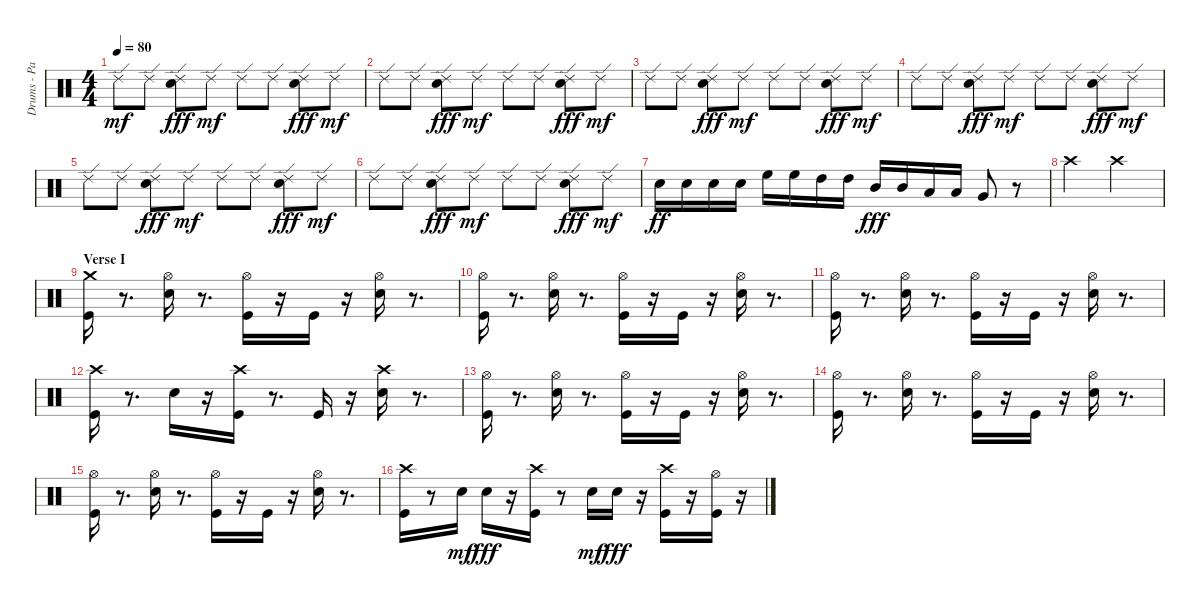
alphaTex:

\track ("Drums - Paice" "Drums - Pa") {instrument percussion}
\staff {score}
\articulation defaults
\ts (4 4)
\tempo 80
\clef neutral
\ks c "Ride (edge) 2".8{dy mf} "Ride (edge) 2".8
("Ride (edge) 2" "Electric Snare (hit)").8{dy fff} "Ride (edge) 2".8{dy mf} "Ride (edge) 2".8 "Ride (edge) 2".8 ("Ride (edge) 2" "Electric Snare (hit)").8{dy fff} "Ride (edge) 2".8{dy mf} |
"Ride (edge) 2".8 "Ride (edge) 2".8 ("Ride (edge) 2" "Electric Snare (hit)").8{dy fff} "Ride (edge) 2".8{dy mf} "Ride (edge) 2".8 "Ride (edge) 2".8 ("Ride (edge) 2" "Electric Snare (hit)").8{dy fff} "Ride (edge) 2".8{dy mf} |
"Ride (edge) 2".8 "Ride (edge) 2".8 ("Ride (edge) 2" "Electric Snare (hit)").8{dy fff} "Ride (edge) 2".8{dy mf} "Ride (edge) 2".8 "Ride (edge) 2".8 ("Ride (edge) 2" "Electric Snare (hit)").8{dy fff} "Ride (edge) 2".8{dy mf} |
"Ride (edge) 2".8 "Ride (edge) 2".8 ("Ride (edge) 2" "Electric Snare (hit)").8{dy fff} "Ride (edge) 2".8{dy mf} "Ride (edge) 2".8 "Ride (edge) 2".8 ("Ride (edge) 2" "Electric Snare (hit)").8{dy fff} "Ride (edge) 2".8{dy mf} |
"Ride (edge) 2".8 "Ride (edge) 2".8 ("Ride (edge) 2" "Electric Snare (hit)").8{dy fff} "Ride (edge) 2".8{dy mf} "Ride (edge) 2".8 "Ride (edge) 2".8 ("Ride (edge) 2" "Electric Snare (hit)").8{dy fff} "Ride (edge) 2".8{dy mf} |
"Ride (edge) 2".8 "Ride (edge) 2".8 ("Ride (edge) 2" "Electric Snare (hit)").8{dy fff} "Ride (edge) 2".8{dy mf} "Ride (edge) 2".8 "Ride (edge) 2".8 ("Ride (edge) 2" "Electric Snare (hit)").8{dy fff} "Ride (edge) 2".8{dy mf} |
"Electric Snare (hit)".16{dy ff} "Electric Snare (hit)".16 "Electric Snare (hit)".16 "Electric Snare (hit)".16 "High Floor Tom (hit)".16 "High Floor Tom (hit)".16 "High Tom (hit)".16 "High Tom (hit)".16 "Mid Tom (hit)".16{dy fff} "Mid Tom (hit)".16 "Low Tom (hit)".16 "Low Tom (hit)".16 "Very Low Tom (hit)".8 r.8 |
"Crash high (hit)".2{volume 14} "Crash high (hit)".2 |
\section ("" "Verse I")
("Kick (hit)" "Crash medium (hit)").16 r.8{d} ("Snare (hit) 2" "Hi-Hat (open)").16 r.8{d} ("Kick (hit)" "Hi-Hat (open)").16 r.16 "Kick (hit)".16 r.16 ("Hi-Hat (open)" "Snare (hit) 2").16 r.8{d} |
("Hi-Hat (open)" "Kick (hit)").16 r.8{d} ("Hi-Hat (open)" "Snare (hit) 2").16 r.8{d} ("Hi-Hat (open)" "Kick (hit)").16 r.16 "Kick (hit)".16 r.16 ("Snare (hit) 2" "Hi-Hat (open)").16 r.8{d} |
("Hi-Hat (open)" "Kick (hit)").16 r.8{d} ("Hi-Hat (open)" "Snare (hit) 2").16 r.8{d} ("Hi-Hat (open)" "Kick (hit)").16 r.16 "Kick (hit)".16 r.16 ("Snare (hit) 2" "Hi-Hat (open)").16 r.8{d} |
("Kick (hit)" "Crash high (hit)").16 r.8{d} "Snare (hit) 2".16 r.16 ("Kick (hit)" "Crash high (hit)").16 r.8{d} "Kick (hit)".16 r.16 ("Snare (hit) 2" "Crash high (hit)").16 r.8{d} |
("Hi-Hat (open)" "Kick (hit)").16 r.8{d} ("Hi-Hat (open)" "Snare (hit) 2").16 r.8{d} ("Hi-Hat (open)" "Kick (hit)").16 r.16 "Kick (hit)".16 r.16 ("Hi-Hat (open)" "Snare (hit) 2").16 r.8{d} |
("Kick (hit)" "Hi-Hat (open)").16 r.8{d} ("Snare (hit) 2" "Hi-Hat (open)").16 r.8{d} ("Kick (hit)" "Hi-Hat (open)").16 r.16 "Kick (hit)".16 r.16 ("Hi-Hat (open)" "Snare (hit) 2").16 r.8{d} |
("Kick (hit)" "Hi-Hat (open)").16 r.8{d} ("Hi-Hat (open)" "Snare (hit) 2").16 r.8{d} ("Hi-Hat (open)" "Kick (hit)").16 r.16 "Kick (hit)".16 r.16 ("Hi-Hat (open)" "Snare (hit) 2").16 r.8{d} |
("Crash high (hit)" "Kick (hit)").16 r.8 "Snare (hit) 2".16{dy mf} "Snare (hit) 2".16{dy fff} r.16 ("Crash high (hit)" "Kick (hit)").16 r.8 "Snare (hit) 2".16{dy mf} "Snare (hit) 2".16{dy fff} r.16 ("Crash high (hit)" "Kick (hit)").16 r.16 ("Hi-Hat (open)" "Kick (hit)").16 r.16
